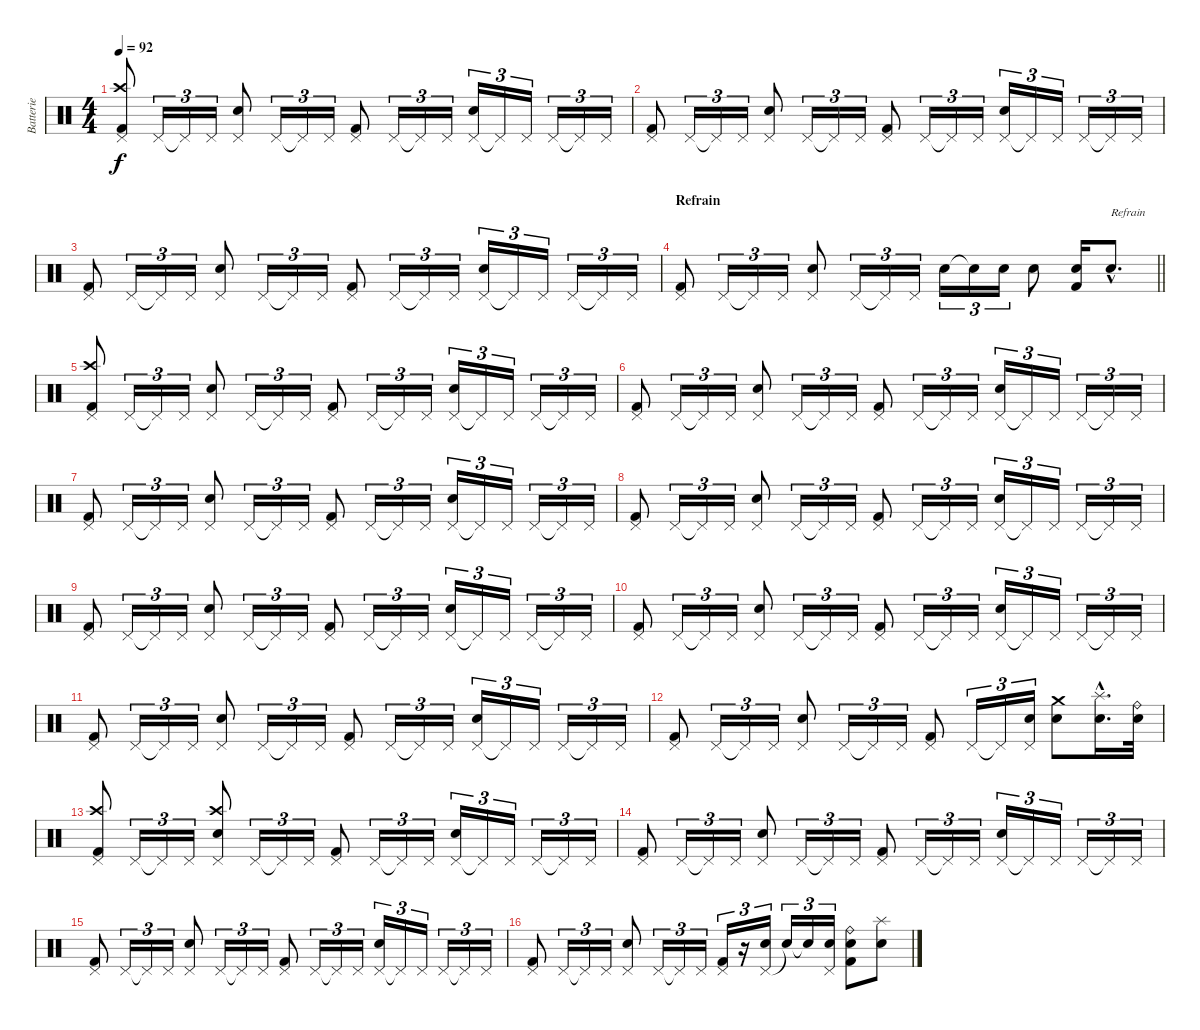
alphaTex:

\track ("Batterie" "Batterie") {instrument percussion}
\staff {score}
\articulation defaults
\ts (4 4)
\tempo 92
\clef neutral
\ks c
("Pedal Hi-Hat (hit)" "Crash high (hit)" "Kick (hit) 2").8{dy f} "Pedal Hi-Hat (hit)".16{tu (3 2)} "Pedal Hi-Hat (hit)"{t}.16{tu (3 2)} "Pedal Hi-Hat (hit)".16{tu (3 2)} ("Pedal Hi-Hat (hit)" "Electric Snare (hit)").8 "Pedal Hi-Hat (hit)".16{tu (3 2)} "Pedal Hi-Hat (hit)"{t}.16{tu (3 2)} "Pedal Hi-Hat (hit)".16{tu (3 2)} ("Pedal Hi-Hat (hit)" "Kick (hit) 2").8 "Pedal Hi-Hat (hit)".16{tu (3 2)} "Pedal Hi-Hat (hit)"{t}.16{tu (3 2)} "Pedal Hi-Hat (hit)".16{tu (3 2)} ("Pedal Hi-Hat (hit)" "Electric Snare (hit)").16{tu (3 2)} "Pedal Hi-Hat (hit)"{t}.16{tu (3 2)} "Pedal Hi-Hat (hit)".16{tu (3 2)} "Pedal Hi-Hat (hit)".16{tu (3 2)} "Pedal Hi-Hat (hit)"{t}.16{tu (3 2)} "Pedal Hi-Hat (hit)".16{tu (3 2)} |
("Pedal Hi-Hat (hit)" "Kick (hit) 2").8 "Pedal Hi-Hat (hit)".16{tu (3 2)} "Pedal Hi-Hat (hit)"{t}.16{tu (3 2)} "Pedal Hi-Hat (hit)".16{tu (3 2)} ("Pedal Hi-Hat (hit)" "Electric Snare (hit)").8 "Pedal Hi-Hat (hit)".16{tu (3 2)} "Pedal Hi-Hat (hit)"{t}.16{tu (3 2)} "Pedal Hi-Hat (hit)".16{tu (3 2)} ("Pedal Hi-Hat (hit)" "Kick (hit) 2").8 "Pedal Hi-Hat (hit)".16{tu (3 2)} "Pedal Hi-Hat (hit)"{t}.16{tu (3 2)} "Pedal Hi-Hat (hit)".16{tu (3 2)} ("Pedal Hi-Hat (hit)" "Electric Snare (hit)").16{tu (3 2)} "Pedal Hi-Hat (hit)"{t}.16{tu (3 2)} "Pedal Hi-Hat (hit)".16{tu (3 2)} "Pedal Hi-Hat (hit)".16{tu (3 2)} "Pedal Hi-Hat (hit)"{t}.16{tu (3 2)} "Pedal Hi-Hat (hit)".16{tu (3 2)} |
("Pedal Hi-Hat (hit)" "Kick (hit) 2").8 "Pedal Hi-Hat (hit)".16{tu (3 2)} "Pedal Hi-Hat (hit)"{t}.16{tu (3 2)} "Pedal Hi-Hat (hit)".16{tu (3 2)} ("Pedal Hi-Hat (hit)" "Electric Snare (hit)").8 "Pedal Hi-Hat (hit)".16{tu (3 2)} "Pedal Hi-Hat (hit)"{t}.16{tu (3 2)} "Pedal Hi-Hat (hit)".16{tu (3 2)} ("Pedal Hi-Hat (hit)" "Kick (hit) 2").8 "Pedal Hi-Hat (hit)".16{tu (3 2)} "Pedal Hi-Hat (hit)"{t}.16{tu (3 2)} "Pedal Hi-Hat (hit)".16{tu (3 2)} ("Pedal Hi-Hat (hit)" "Electric Snare (hit)").16{tu (3 2)} "Pedal Hi-Hat (hit)"{t}.16{tu (3 2)} "Pedal Hi-Hat (hit)".16{tu (3 2)} "Pedal Hi-Hat (hit)".16{tu (3 2)} "Pedal Hi-Hat (hit)"{t}.16{tu (3 2)} "Pedal Hi-Hat (hit)".16{tu (3 2)} |
\section ("" "Refrain")
\barLineRight lightlight
("Pedal Hi-Hat (hit)" "Kick (hit) 2").8 "Pedal Hi-Hat (hit)".16{tu (3 2)} "Pedal Hi-Hat (hit)"{t}.16{tu (3 2)} "Pedal Hi-Hat (hit)".16{tu (3 2)} ("Pedal Hi-Hat (hit)" "Electric Snare (hit)").8 "Pedal Hi-Hat (hit)".16{tu (3 2)} "Pedal Hi-Hat (hit)"{t}.16{tu (3 2)} "Pedal Hi-Hat (hit)".16{tu (3 2)} "Electric Snare (hit)".16{tu (3 2)} "Electric Snare (hit)"{t}.16{tu (3 2)} "Electric Snare (hit)".16{tu (3 2)} "Electric Snare (hit)".8 ("Electric Snare (hit)" "Kick (hit) 2").16 "Electric Snare (hit)"{hac}.8{d txt "Refrain"} |
("Pedal Hi-Hat (hit)" "Crash high (hit)" "Kick (hit) 2").8 "Pedal Hi-Hat (hit)".16{tu (3 2)} "Pedal Hi-Hat (hit)"{t}.16{tu (3 2)} "Pedal Hi-Hat (hit)".16{tu (3 2)} ("Pedal Hi-Hat (hit)" "Electric Snare (hit)").8 "Pedal Hi-Hat (hit)".16{tu (3 2)} "Pedal Hi-Hat (hit)"{t}.16{tu (3 2)} "Pedal Hi-Hat (hit)".16{tu (3 2)} ("Pedal Hi-Hat (hit)" "Kick (hit) 2").8 "Pedal Hi-Hat (hit)".16{tu (3 2)} "Pedal Hi-Hat (hit)"{t}.16{tu (3 2)} "Pedal Hi-Hat (hit)".16{tu (3 2)} ("Pedal Hi-Hat (hit)" "Electric Snare (hit)").16{tu (3 2)} "Pedal Hi-Hat (hit)"{t}.16{tu (3 2)} "Pedal Hi-Hat (hit)".16{tu (3 2)} "Pedal Hi-Hat (hit)".16{tu (3 2)} "Pedal Hi-Hat (hit)"{t}.16{tu (3 2)} "Pedal Hi-Hat (hit)".16{tu (3 2)} |
("Pedal Hi-Hat (hit)" "Kick (hit) 2").8 "Pedal Hi-Hat (hit)".16{tu (3 2)} "Pedal Hi-Hat (hit)"{t}.16{tu (3 2)} "Pedal Hi-Hat (hit)".16{tu (3 2)} ("Pedal Hi-Hat (hit)" "Electric Snare (hit)").8 "Pedal Hi-Hat (hit)".16{tu (3 2)} "Pedal Hi-Hat (hit)"{t}.16{tu (3 2)} "Pedal Hi-Hat (hit)".16{tu (3 2)} ("Pedal Hi-Hat (hit)" "Kick (hit) 2").8 "Pedal Hi-Hat (hit)".16{tu (3 2)} "Pedal Hi-Hat (hit)"{t}.16{tu (3 2)} "Pedal Hi-Hat (hit)".16{tu (3 2)} ("Pedal Hi-Hat (hit)" "Electric Snare (hit)").16{tu (3 2)} "Pedal Hi-Hat (hit)"{t}.16{tu (3 2)} "Pedal Hi-Hat (hit)".16{tu (3 2)} "Pedal Hi-Hat (hit)".16{tu (3 2)} "Pedal Hi-Hat (hit)"{t}.16{tu (3 2)} "Pedal Hi-Hat (hit)".16{tu (3 2)} |
("Pedal Hi-Hat (hit)" "Kick (hit) 2").8 "Pedal Hi-Hat (hit)".16{tu (3 2)} "Pedal Hi-Hat (hit)"{t}.16{tu (3 2)} "Pedal Hi-Hat (hit)".16{tu (3 2)} ("Pedal Hi-Hat (hit)" "Electric Snare (hit)").8 "Pedal Hi-Hat (hit)".16{tu (3 2)} "Pedal Hi-Hat (hit)"{t}.16{tu (3 2)} "Pedal Hi-Hat (hit)".16{tu (3 2)} ("Pedal Hi-Hat (hit)" "Kick (hit) 2").8 "Pedal Hi-Hat (hit)".16{tu (3 2)} "Pedal Hi-Hat (hit)"{t}.16{tu (3 2)} "Pedal Hi-Hat (hit)".16{tu (3 2)} ("Pedal Hi-Hat (hit)" "Electric Snare (hit)").16{tu (3 2)} "Pedal Hi-Hat (hit)"{t}.16{tu (3 2)} "Pedal Hi-Hat (hit)".16{tu (3 2)} "Pedal Hi-Hat (hit)".16{tu (3 2)} "Pedal Hi-Hat (hit)"{t}.16{tu (3 2)} "Pedal Hi-Hat (hit)".16{tu (3 2)} |
("Pedal Hi-Hat (hit)" "Kick (hit) 2").8 "Pedal Hi-Hat (hit)".16{tu (3 2)} "Pedal Hi-Hat (hit)"{t}.16{tu (3 2)} "Pedal Hi-Hat (hit)".16{tu (3 2)} ("Pedal Hi-Hat (hit)" "Electric Snare (hit)").8 "Pedal Hi-Hat (hit)".16{tu (3 2)} "Pedal Hi-Hat (hit)"{t}.16{tu (3 2)} "Pedal Hi-Hat (hit)".16{tu (3 2)} ("Pedal Hi-Hat (hit)" "Kick (hit) 2").8 "Pedal Hi-Hat (hit)".16{tu (3 2)} "Pedal Hi-Hat (hit)"{t}.16{tu (3 2)} "Pedal Hi-Hat (hit)".16{tu (3 2)} ("Pedal Hi-Hat (hit)" "Electric Snare (hit)").16{tu (3 2)} "Pedal Hi-Hat (hit)"{t}.16{tu (3 2)} "Pedal Hi-Hat (hit)".16{tu (3 2)} "Pedal Hi-Hat (hit)".16{tu (3 2)} "Pedal Hi-Hat (hit)"{t}.16{tu (3 2)} "Pedal Hi-Hat (hit)".16{tu (3 2)} |
("Pedal Hi-Hat (hit)" "Kick (hit) 2").8 "Pedal Hi-Hat (hit)".16{tu (3 2)} "Pedal Hi-Hat (hit)"{t}.16{tu (3 2)} "Pedal Hi-Hat (hit)".16{tu (3 2)} ("Pedal Hi-Hat (hit)" "Electric Snare (hit)").8 "Pedal Hi-Hat (hit)".16{tu (3 2)} "Pedal Hi-Hat (hit)"{t}.16{tu (3 2)} "Pedal Hi-Hat (hit)".16{tu (3 2)} ("Pedal Hi-Hat (hit)" "Kick (hit) 2").8 "Pedal Hi-Hat (hit)".16{tu (3 2)} "Pedal Hi-Hat (hit)"{t}.16{tu (3 2)} "Pedal Hi-Hat (hit)".16{tu (3 2)} ("Pedal Hi-Hat (hit)" "Electric Snare (hit)").16{tu (3 2)} "Pedal Hi-Hat (hit)"{t}.16{tu (3 2)} "Pedal Hi-Hat (hit)".16{tu (3 2)} "Pedal Hi-Hat (hit)".16{tu (3 2)} "Pedal Hi-Hat (hit)"{t}.16{tu (3 2)} "Pedal Hi-Hat (hit)".16{tu (3 2)} |
("Pedal Hi-Hat (hit)" "Kick (hit) 2").8 "Pedal Hi-Hat (hit)".16{tu (3 2)} "Pedal Hi-Hat (hit)"{t}.16{tu (3 2)} "Pedal Hi-Hat (hit)".16{tu (3 2)} ("Pedal Hi-Hat (hit)" "Electric Snare (hit)").8 "Pedal Hi-Hat (hit)".16{tu (3 2)} "Pedal Hi-Hat (hit)"{t}.16{tu (3 2)} "Pedal Hi-Hat (hit)".16{tu (3 2)} ("Pedal Hi-Hat (hit)" "Kick (hit) 2").8 "Pedal Hi-Hat (hit)".16{tu (3 2)} "Pedal Hi-Hat (hit)"{t}.16{tu (3 2)} "Pedal Hi-Hat (hit)".16{tu (3 2)} ("Pedal Hi-Hat (hit)" "Electric Snare (hit)").16{tu (3 2)} "Pedal Hi-Hat (hit)"{t}.16{tu (3 2)} "Pedal Hi-Hat (hit)".16{tu (3 2)} "Pedal Hi-Hat (hit)".16{tu (3 2)} "Pedal Hi-Hat (hit)"{t}.16{tu (3 2)} "Pedal Hi-Hat (hit)".16{tu (3 2)} |
("Pedal Hi-Hat (hit)" "Kick (hit) 2").8 "Pedal Hi-Hat (hit)".16{tu (3 2)} "Pedal Hi-Hat (hit)"{t}.16{tu (3 2)} "Pedal Hi-Hat (hit)".16{tu (3 2)} ("Pedal Hi-Hat (hit)" "Electric Snare (hit)").8 "Pedal Hi-Hat (hit)".16{tu (3 2)} "Pedal Hi-Hat (hit)"{t}.16{tu (3 2)} "Pedal Hi-Hat (hit)".16{tu (3 2)} ("Pedal Hi-Hat (hit)" "Kick (hit) 2").8 "Pedal Hi-Hat (hit)".16{tu (3 2)} "Pedal Hi-Hat (hit)"{t}.16{tu (3 2)} "Pedal Hi-Hat (hit)".16{tu (3 2)} ("Pedal Hi-Hat (hit)" "Electric Snare (hit)").16{tu (3 2)} "Pedal Hi-Hat (hit)"{t}.16{tu (3 2)} "Pedal Hi-Hat (hit)".16{tu (3 2)} "Pedal Hi-Hat (hit)".16{tu (3 2)} "Pedal Hi-Hat (hit)"{t}.16{tu (3 2)} "Pedal Hi-Hat (hit)".16{tu (3 2)} |
("Pedal Hi-Hat (hit)" "Kick (hit) 2").8 "Pedal Hi-Hat (hit)".16{tu (3 2)} "Pedal Hi-Hat (hit)"{t}.16{tu (3 2)} "Pedal Hi-Hat (hit)".16{tu (3 2)} ("Pedal Hi-Hat (hit)" "Electric Snare (hit)").8 "Pedal Hi-Hat (hit)".16{tu (3 2)} "Pedal Hi-Hat (hit)"{t}.16{tu (3 2)} "Pedal Hi-Hat (hit)".16{tu (3 2)} ("Pedal Hi-Hat (hit)" "Kick (hit) 2").8 "Pedal Hi-Hat (hit)".16{tu (3 2)} "Pedal Hi-Hat (hit)"{t}.16{tu (3 2)} ("Pedal Hi-Hat (hit)" "Electric Snare (hit)").16{tu (3 2)} ("Crash medium (hit)" "Electric Snare (hit)").8 ("Splash (hit)"{hac} "Electric Snare (hit)"{hac}).16{d} ("Ride (bell)" "Electric Snare (hit)").32 |
("Pedal Hi-Hat (hit)" "Crash high (hit)" "Kick (hit) 2").8 "Pedal Hi-Hat (hit)".16{tu (3 2)} "Pedal Hi-Hat (hit)"{t}.16{tu (3 2)} "Pedal Hi-Hat (hit)".16{tu (3 2)} ("Pedal Hi-Hat (hit)" "Crash high (hit)" "Electric Snare (hit)").8 "Pedal Hi-Hat (hit)".16{tu (3 2)} "Pedal Hi-Hat (hit)"{t}.16{tu (3 2)} "Pedal Hi-Hat (hit)".16{tu (3 2)} ("Pedal Hi-Hat (hit)" "Kick (hit) 2").8 "Pedal Hi-Hat (hit)".16{tu (3 2)} "Pedal Hi-Hat (hit)"{t}.16{tu (3 2)} "Pedal Hi-Hat (hit)".16{tu (3 2)} ("Pedal Hi-Hat (hit)" "Electric Snare (hit)").16{tu (3 2)} "Pedal Hi-Hat (hit)"{t}.16{tu (3 2)} "Pedal Hi-Hat (hit)".16{tu (3 2)} "Pedal Hi-Hat (hit)".16{tu (3 2)} "Pedal Hi-Hat (hit)"{t}.16{tu (3 2)} "Pedal Hi-Hat (hit)".16{tu (3 2)} |
("Pedal Hi-Hat (hit)" "Kick (hit) 2").8 "Pedal Hi-Hat (hit)".16{tu (3 2)} "Pedal Hi-Hat (hit)"{t}.16{tu (3 2)} "Pedal Hi-Hat (hit)".16{tu (3 2)} ("Pedal Hi-Hat (hit)" "Electric Snare (hit)").8 "Pedal Hi-Hat (hit)".16{tu (3 2)} "Pedal Hi-Hat (hit)"{t}.16{tu (3 2)} "Pedal Hi-Hat (hit)".16{tu (3 2)} ("Pedal Hi-Hat (hit)" "Kick (hit) 2").8 "Pedal Hi-Hat (hit)".16{tu (3 2)} "Pedal Hi-Hat (hit)"{t}.16{tu (3 2)} "Pedal Hi-Hat (hit)".16{tu (3 2)} ("Pedal Hi-Hat (hit)" "Electric Snare (hit)").16{tu (3 2)} "Pedal Hi-Hat (hit)"{t}.16{tu (3 2)} "Pedal Hi-Hat (hit)".16{tu (3 2)} "Pedal Hi-Hat (hit)".16{tu (3 2)} "Pedal Hi-Hat (hit)"{t}.16{tu (3 2)} "Pedal Hi-Hat (hit)".16{tu (3 2)} |
("Pedal Hi-Hat (hit)" "Kick (hit) 2").8 "Pedal Hi-Hat (hit)".16{tu (3 2)} "Pedal Hi-Hat (hit)"{t}.16{tu (3 2)} "Pedal Hi-Hat (hit)".16{tu (3 2)} ("Pedal Hi-Hat (hit)" "Electric Snare (hit)").8 "Pedal Hi-Hat (hit)".16{tu (3 2)} "Pedal Hi-Hat (hit)"{t}.16{tu (3 2)} "Pedal Hi-Hat (hit)".16{tu (3 2)} ("Pedal Hi-Hat (hit)" "Kick (hit) 2").8 "Pedal Hi-Hat (hit)".16{tu (3 2)} "Pedal Hi-Hat (hit)"{t}.16{tu (3 2)} "Pedal Hi-Hat (hit)".16{tu (3 2)} ("Pedal Hi-Hat (hit)" "Electric Snare (hit)").16{tu (3 2)} "Pedal Hi-Hat (hit)"{t}.16{tu (3 2)} "Pedal Hi-Hat (hit)".16{tu (3 2)} "Pedal Hi-Hat (hit)".16{tu (3 2)} "Pedal Hi-Hat (hit)"{t}.16{tu (3 2)} "Pedal Hi-Hat (hit)".16{tu (3 2)} |
("Pedal Hi-Hat (hit)" "Kick (hit) 2").8 "Pedal Hi-Hat (hit)".16{tu (3 2)} "Pedal Hi-Hat (hit)"{t}.16{tu (3 2)} "Pedal Hi-Hat (hit)".16{tu (3 2)} ("Pedal Hi-Hat (hit)" "Electric Snare (hit)").8 "Pedal Hi-Hat (hit)".16{tu (3 2)} "Pedal Hi-Hat (hit)"{t}.16{tu (3 2)} "Pedal Hi-Hat (hit)".16{tu (3 2)} ("Pedal Hi-Hat (hit)" "Kick (hit) 2").16{tu (3 2)} r.16{tu (3 2)} ("Pedal Hi-Hat (hit)" "Electric Snare (hit)").16{tu (3 2)} "Electric Snare (hit)"{t}.16{tu (3 2)} "Electric Snare (hit)"{t}.16{tu (3 2)} ("Pedal Hi-Hat (hit)" "Electric Snare (hit)").16{tu (3 2)} ("Ride (bell)" "Electric Snare (hit)" "Kick (hit) 2").8 ("Splash (hit)" "Electric Snare (hit)").8
